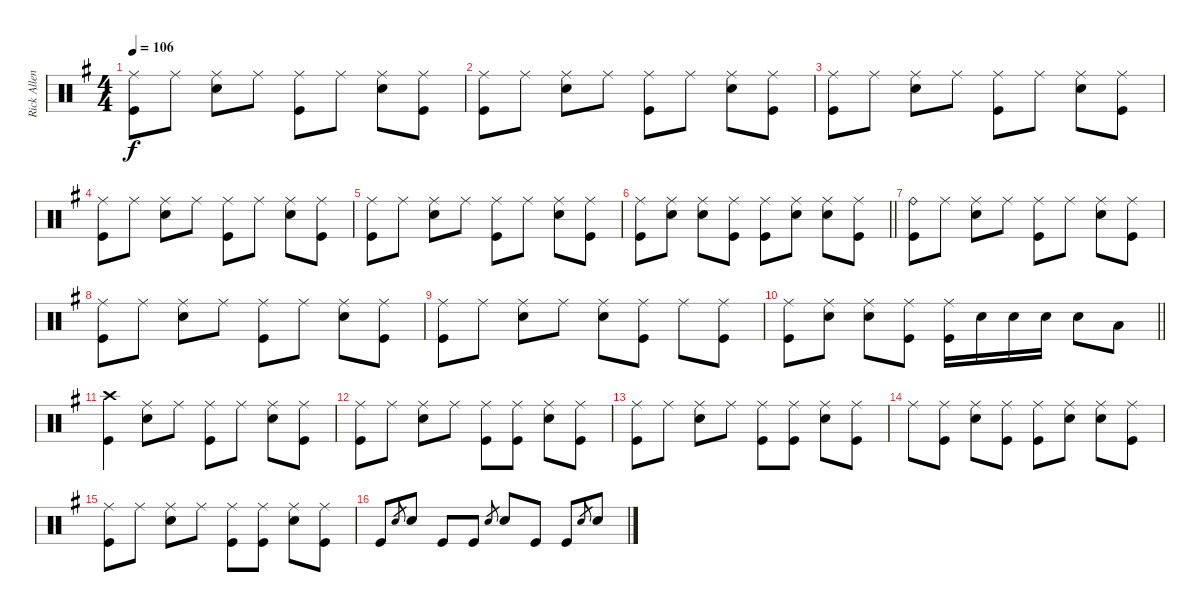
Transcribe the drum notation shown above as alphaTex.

\track ("Rick Allen \"Thundergood\"" "Rick Allen") {instrument percussion}
\staff {score}
\articulation defaults
\ts (4 4)
\tempo 106
\clef neutral
\ks eminor
("Ride (middle)" "Kick (hit)").8{dy f} "Ride (middle)".8 ("Ride (middle)" "Snare (hit) 2").8 "Ride (middle)".8 ("Ride (middle)" "Kick (hit)").8 "Ride (middle)".8 ("Ride (middle)" "Snare (hit) 2").8 ("Ride (middle)" "Kick (hit)").8 |
("Ride (middle)" "Kick (hit)").8 "Ride (middle)".8 ("Ride (middle)" "Snare (hit) 2").8 "Ride (middle)".8 ("Ride (middle)" "Kick (hit)").8 "Ride (middle)".8 ("Ride (middle)" "Snare (hit) 2").8 ("Ride (middle)" "Kick (hit)").8 |
("Ride (middle)" "Kick (hit)").8 "Ride (middle)".8 ("Ride (middle)" "Snare (hit) 2").8 "Ride (middle)".8 ("Ride (middle)" "Kick (hit)").8 "Ride (middle)".8 ("Ride (middle)" "Snare (hit) 2").8 ("Ride (middle)" "Kick (hit)").8 |
("Ride (middle)" "Kick (hit)").8 "Ride (middle)".8 ("Ride (middle)" "Snare (hit) 2").8 "Ride (middle)".8 ("Ride (middle)" "Kick (hit)").8 "Ride (middle)".8 ("Ride (middle)" "Snare (hit) 2").8 ("Ride (middle)" "Kick (hit)").8 |
("Ride (middle)" "Kick (hit)").8 "Ride (middle)".8 ("Ride (middle)" "Snare (hit) 2").8 "Ride (middle)".8 ("Ride (middle)" "Kick (hit)").8 "Ride (middle)".8 ("Ride (middle)" "Snare (hit) 2").8 ("Ride (middle)" "Kick (hit)").8 |
\barLineRight lightlight
("Ride (middle)" "Kick (hit)").8 ("Ride (middle)" "Snare (hit) 2").8 ("Ride (middle)" "Snare (hit) 2").8 ("Ride (middle)" "Kick (hit)").8 ("Ride (middle)" "Kick (hit)").8 ("Ride (middle)" "Snare (hit) 2").8 ("Ride (middle)" "Snare (hit) 2").8 ("Ride (middle)" "Kick (hit)").8 |
("Ride (bell)" "Kick (hit)").8 "Ride (middle)".8 ("Ride (middle)" "Snare (hit) 2").8 "Ride (middle)".8 ("Ride (middle)" "Kick (hit)").8 "Ride (middle)".8 ("Ride (middle)" "Snare (hit) 2").8 ("Ride (middle)" "Kick (hit)").8 |
("Ride (middle)" "Kick (hit)").8 "Ride (middle)".8 ("Ride (middle)" "Snare (hit) 2").8 "Ride (middle)".8 ("Ride (middle)" "Kick (hit)").8 "Ride (middle)".8 ("Ride (middle)" "Snare (hit) 2").8 ("Ride (middle)" "Kick (hit)").8 |
("Ride (middle)" "Kick (hit)").8 "Ride (middle)".8 ("Ride (middle)" "Snare (hit) 2").8 "Ride (middle)".8 ("Ride (middle)" "Snare (hit) 2").8 ("Ride (middle)" "Kick (hit)").8 "Ride (middle)".8 ("Ride (middle)" "Kick (hit)").8 |
\barLineRight lightlight
("Ride (middle)" "Kick (hit)").8 ("Ride (middle)" "Snare (hit) 2").8 ("Ride (middle)" "Snare (hit) 2").8 ("Ride (middle)" "Kick (hit)").8 ("Ride (middle)" "Kick (hit)").16 "Snare (hit) 2".16 "Snare (hit) 2".16 "Snare (hit) 2".16 "Snare (hit) 2".8 "Low Tom (hit)".8 |
("Crash high (hit)" "Kick (hit)").4 ("Ride (middle)" "Snare (hit) 2").8 "Ride (middle)".8 ("Ride (middle)" "Kick (hit)").8 "Ride (middle)".8 ("Ride (middle)" "Snare (hit) 2").8 ("Ride (middle)" "Kick (hit)").8 |
("Ride (middle)" "Kick (hit)").8 "Ride (middle)".8 ("Ride (middle)" "Snare (hit) 2").8 "Ride (middle)".8 ("Ride (middle)" "Kick (hit)").8 ("Ride (middle)" "Kick (hit)").8 ("Ride (middle)" "Snare (hit) 2").8 ("Ride (middle)" "Kick (hit)").8 |
("Ride (middle)" "Kick (hit)").8 "Ride (middle)".8 ("Ride (middle)" "Snare (hit) 2").8 "Ride (middle)".8 ("Ride (middle)" "Kick (hit)").8 ("Ride (middle)" "Kick (hit)").8 ("Ride (middle)" "Snare (hit) 2").8 ("Ride (middle)" "Kick (hit)").8 |
"Ride (middle)".8 ("Ride (middle)" "Kick (hit)").8 ("Ride (middle)" "Snare (hit) 2").8 ("Ride (middle)" "Kick (hit)").8 ("Ride (middle)" "Kick (hit)").8 ("Ride (middle)" "Snare (hit) 2").8 ("Ride (middle)" "Snare (hit) 2").8 ("Ride (middle)" "Kick (hit)").8 |
("Ride (middle)" "Kick (hit)").8 "Ride (middle)".8 ("Ride (middle)" "Snare (hit) 2").8 "Ride (middle)".8 ("Ride (middle)" "Kick (hit)").8 ("Ride (middle)" "Kick (hit)").8 ("Ride (middle)" "Snare (hit) 2").8 ("Ride (middle)" "Kick (hit)").8 |
"Kick (hit)".8 "Snare (hit) 2".8{gr} "Snare (hit) 2".8 "Kick (hit)".8 "Kick (hit)".8 "Snare (hit) 2".8{gr} "Snare (hit) 2".8 "Kick (hit)".8 "Kick (hit)".8 "Snare (hit) 2".8{gr} "Snare (hit) 2".8
